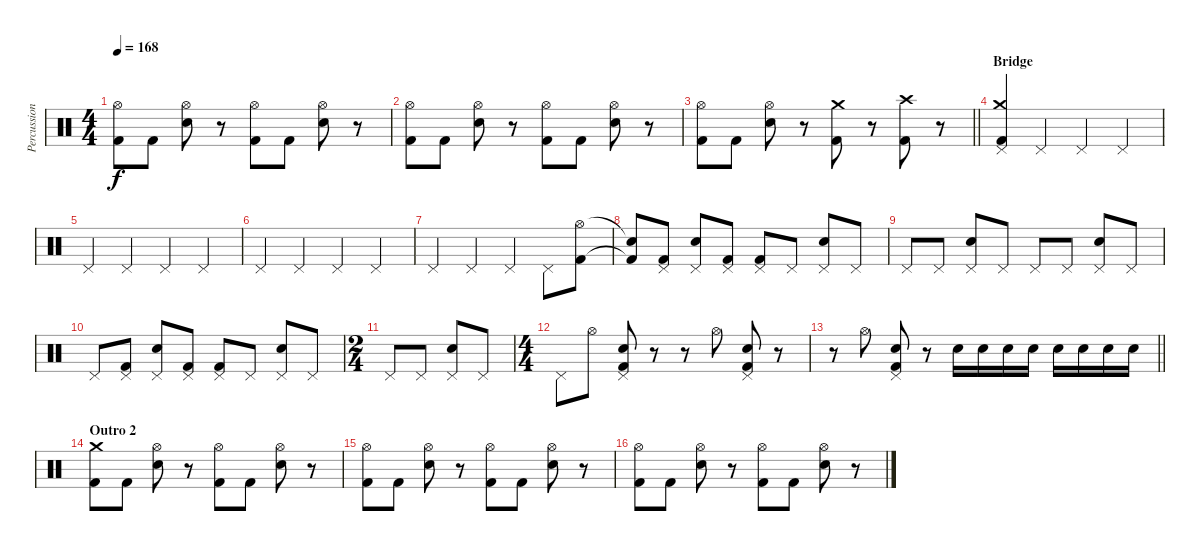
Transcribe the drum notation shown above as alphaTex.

\track ("Percussion" "Percussion") {instrument percussion}
\staff {score}
\articulation defaults
\ts (4 4)
\tempo 168
\clef neutral
\ks c
("Hi-Hat (open)" "Kick (hit) 2").8{dy f} "Kick (hit) 2".8 ("Hi-Hat (open)" "Snare (hit) 2").8 r.8 ("Hi-Hat (open)" "Kick (hit) 2").8 "Kick (hit) 2".8 ("Hi-Hat (open)" "Snare (hit) 2").8 r.8 |
("Hi-Hat (open)" "Kick (hit) 2").8 "Kick (hit) 2".8 ("Hi-Hat (open)" "Snare (hit) 2").8 r.8 ("Hi-Hat (open)" "Kick (hit) 2").8 "Kick (hit) 2".8 ("Hi-Hat (open)" "Snare (hit) 2").8 r.8 |
\barLineRight lightlight
("Hi-Hat (open)" "Kick (hit) 2").8 "Kick (hit) 2".8 ("Hi-Hat (open)" "Snare (hit) 2").8 r.8 ("Crash medium (hit)" "Kick (hit) 2").8 r.8 ("Crash high (hit)" "Kick (hit) 2").8 r.8 |
\section ("" "Bridge")
("Crash medium (hit)" "Pedal Hi-Hat (hit)" "Kick (hit) 2").4 "Pedal Hi-Hat (hit)".4 "Pedal Hi-Hat (hit)".4 "Pedal Hi-Hat (hit)".4 |
"Pedal Hi-Hat (hit)".4 "Pedal Hi-Hat (hit)".4 "Pedal Hi-Hat (hit)".4 "Pedal Hi-Hat (hit)".4 |
"Pedal Hi-Hat (hit)".4 "Pedal Hi-Hat (hit)".4 "Pedal Hi-Hat (hit)".4 "Pedal Hi-Hat (hit)".4 |
"Pedal Hi-Hat (hit)".4 "Pedal Hi-Hat (hit)".4 "Pedal Hi-Hat (hit)".4 "Pedal Hi-Hat (hit)".8 ("Hi-Hat (open)" "Kick (hit) 2").8 |
("Snare (hit)"{t} "Kick (hit) 2"{t}).8 ("Pedal Hi-Hat (hit)" "Kick (hit) 2").8 ("Pedal Hi-Hat (hit)" "Snare (hit) 2").8 ("Pedal Hi-Hat (hit)" "Kick (hit) 2").8 ("Pedal Hi-Hat (hit)" "Kick (hit) 2").8 "Pedal Hi-Hat (hit)".8 ("Pedal Hi-Hat (hit)" "Snare (hit) 2").8 "Pedal Hi-Hat (hit)".8 |
"Pedal Hi-Hat (hit)".8 "Pedal Hi-Hat (hit)".8 ("Pedal Hi-Hat (hit)" "Snare (hit) 2").8 "Pedal Hi-Hat (hit)".8 "Pedal Hi-Hat (hit)".8 "Pedal Hi-Hat (hit)".8 ("Pedal Hi-Hat (hit)" "Snare (hit) 2").8 "Pedal Hi-Hat (hit)".8 |
"Pedal Hi-Hat (hit)".8 ("Pedal Hi-Hat (hit)" "Kick (hit) 2").8 ("Pedal Hi-Hat (hit)" "Snare (hit) 2").8 ("Pedal Hi-Hat (hit)" "Kick (hit) 2").8 ("Pedal Hi-Hat (hit)" "Kick (hit) 2").8 "Pedal Hi-Hat (hit)".8 ("Pedal Hi-Hat (hit)" "Snare (hit) 2").8 "Pedal Hi-Hat (hit)".8 |
\ts (2 4)
"Pedal Hi-Hat (hit)".8 "Pedal Hi-Hat (hit)".8 ("Pedal Hi-Hat (hit)" "Snare (hit) 2").8 "Pedal Hi-Hat (hit)".8 |
\ts (4 4)
"Pedal Hi-Hat (hit)".8 "Hi-Hat (open)".8 ("Pedal Hi-Hat (hit)" "Snare (hit) 2" "Kick (hit) 2").8 r.8 r.8 "Hi-Hat (open)".8 ("Pedal Hi-Hat (hit)" "Snare (hit) 2" "Kick (hit) 2").8 r.8 |
\barLineRight lightlight
r.8 "Hi-Hat (open)".8 ("Pedal Hi-Hat (hit)" "Snare (hit) 2" "Kick (hit) 2").8 r.8 "Snare (hit) 2".16 "Snare (hit) 2".16 "Snare (hit) 2".16 "Snare (hit) 2".16 "Snare (hit) 2".16 "Snare (hit) 2".16 "Snare (hit) 2".16 "Snare (hit) 2".16 |
\section ("" "Outro 2")
("Crash medium (hit)" "Kick (hit) 2").8 "Kick (hit) 2".8 ("Hi-Hat (open)" "Snare (hit) 2").8 r.8 ("Hi-Hat (open)" "Kick (hit) 2").8 "Kick (hit) 2".8 ("Hi-Hat (open)" "Snare (hit) 2").8 r.8 |
("Hi-Hat (open)" "Kick (hit) 2").8 "Kick (hit) 2".8 ("Hi-Hat (open)" "Snare (hit) 2").8 r.8 ("Hi-Hat (open)" "Kick (hit) 2").8 "Kick (hit) 2".8 ("Hi-Hat (open)" "Snare (hit) 2").8 r.8 |
("Hi-Hat (open)" "Kick (hit) 2").8 "Kick (hit) 2".8 ("Hi-Hat (open)" "Snare (hit) 2").8 r.8 ("Hi-Hat (open)" "Kick (hit) 2").8 "Kick (hit) 2".8 ("Hi-Hat (open)" "Snare (hit) 2").8 r.8
